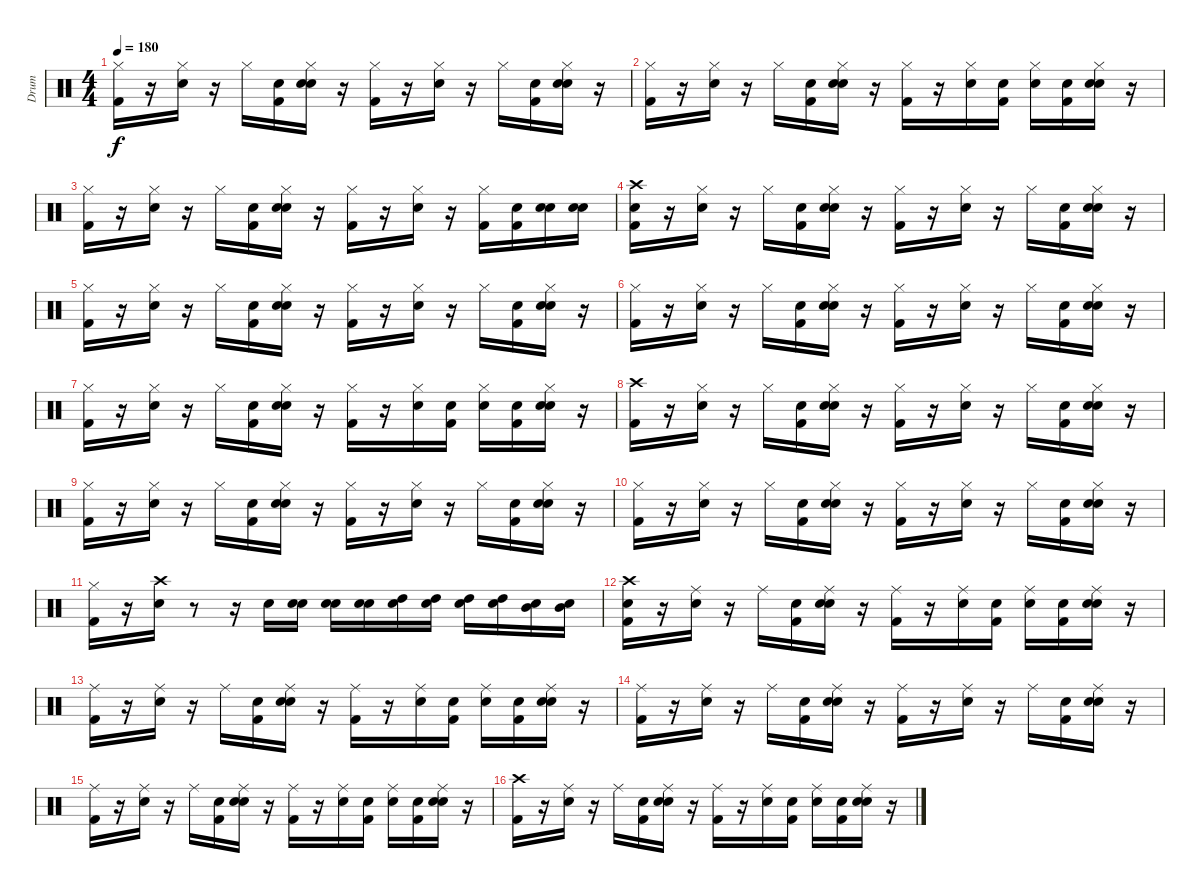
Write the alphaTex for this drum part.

\track ("Drum" "Drum") {instrument percussion}
\staff {score}
\articulation defaults
\ts (4 4)
\tempo 180
\clef neutral
\ks c
("Kick (hit) 2" "Hi-Hat (closed)").16{dy f} r.16 ("Snare (hit) 2" "Hi-Hat (closed)").16 r.16 "Hi-Hat (closed)".16 ("Snare (hit)" "Kick (hit) 2").16 ("Snare (hit)" "Snare (hit) 2" "Hi-Hat (closed)").16 r.16 ("Kick (hit) 2" "Hi-Hat (closed)").16 r.16 ("Snare (hit) 2" "Hi-Hat (closed)").16 r.16 "Hi-Hat (closed)".16 ("Snare (hit)" "Kick (hit) 2").16 ("Snare (hit)" "Snare (hit) 2" "Hi-Hat (closed)").16 r.16 |
("Kick (hit) 2" "Hi-Hat (closed)").16 r.16 ("Snare (hit) 2" "Hi-Hat (closed)").16 r.16 "Hi-Hat (closed)".16 ("Snare (hit)" "Kick (hit) 2").16 ("Snare (hit)" "Snare (hit) 2" "Hi-Hat (closed)").16 r.16 ("Hi-Hat (closed)" "Kick (hit) 2").16 r.16 ("Snare (hit) 2" "Hi-Hat (closed)").16 ("Snare (hit)" "Kick (hit) 2").16 ("Snare (hit)" "Hi-Hat (closed)").16 ("Snare (hit)" "Kick (hit) 2").16 ("Snare (hit)" "Snare (hit) 2" "Hi-Hat (closed)").16 r.16 |
("Kick (hit) 2" "Hi-Hat (closed)").16 r.16 ("Snare (hit) 2" "Hi-Hat (closed)").16 r.16 "Hi-Hat (closed)".16 ("Snare (hit)" "Kick (hit) 2").16 ("Snare (hit)" "Snare (hit) 2" "Hi-Hat (closed)").16 r.16 ("Kick (hit) 2" "Hi-Hat (closed)").16 r.16 ("Snare (hit) 2" "Hi-Hat (closed)").16 r.16 ("Kick (hit) 2" "Hi-Hat (closed)").16 ("Snare (hit)" "Kick (hit) 2").16 ("Snare (hit)" "Snare (hit) 2").16 ("Snare (hit)" "Snare (hit) 2").16 |
("Snare (hit)" "Kick (hit) 2" "Crash high (hit)").16 r.16 ("Snare (hit) 2" "Hi-Hat (closed)").16 r.16 "Hi-Hat (closed)".16 ("Snare (hit)" "Kick (hit) 2").16 ("Snare (hit)" "Snare (hit) 2" "Hi-Hat (closed)").16 r.16 ("Kick (hit) 2" "Hi-Hat (closed)").16 r.16 ("Snare (hit) 2" "Hi-Hat (closed)").16 r.16 "Hi-Hat (closed)".16 ("Snare (hit)" "Kick (hit) 2").16 ("Snare (hit)" "Snare (hit) 2" "Hi-Hat (closed)").16 r.16 |
("Kick (hit) 2" "Hi-Hat (closed)").16 r.16 ("Snare (hit) 2" "Hi-Hat (closed)").16 r.16 "Hi-Hat (closed)".16 ("Snare (hit)" "Kick (hit) 2").16 ("Snare (hit)" "Snare (hit) 2" "Hi-Hat (closed)").16 r.16 ("Kick (hit) 2" "Hi-Hat (closed)").16 r.16 ("Snare (hit) 2" "Hi-Hat (closed)").16 r.16 "Hi-Hat (closed)".16 ("Snare (hit)" "Kick (hit) 2").16 ("Snare (hit)" "Snare (hit) 2" "Hi-Hat (closed)").16 r.16 |
("Kick (hit) 2" "Hi-Hat (closed)").16 r.16 ("Snare (hit) 2" "Hi-Hat (closed)").16 r.16 "Hi-Hat (closed)".16 ("Snare (hit)" "Kick (hit) 2").16 ("Snare (hit)" "Snare (hit) 2" "Hi-Hat (closed)").16 r.16 ("Kick (hit) 2" "Hi-Hat (closed)").16 r.16 ("Snare (hit) 2" "Hi-Hat (closed)").16 r.16 "Hi-Hat (closed)".16 ("Snare (hit)" "Kick (hit) 2").16 ("Snare (hit)" "Snare (hit) 2" "Hi-Hat (closed)").16 r.16 |
("Kick (hit) 2" "Hi-Hat (closed)").16 r.16 ("Snare (hit) 2" "Hi-Hat (closed)").16 r.16 "Hi-Hat (closed)".16 ("Snare (hit)" "Kick (hit) 2").16 ("Snare (hit)" "Snare (hit) 2" "Hi-Hat (closed)").16 r.16 ("Kick (hit) 2" "Hi-Hat (closed)").16 r.16 ("Snare (hit) 2" "Hi-Hat (closed)").16 ("Snare (hit)" "Kick (hit) 2").16 ("Snare (hit)" "Hi-Hat (closed)").16 ("Snare (hit)" "Kick (hit) 2").16 ("Snare (hit)" "Snare (hit) 2" "Hi-Hat (closed)").16 r.16 |
("Kick (hit) 2" "Crash high (hit)").16 r.16 ("Snare (hit) 2" "Hi-Hat (closed)").16 r.16 "Hi-Hat (closed)".16 ("Snare (hit)" "Kick (hit) 2").16 ("Snare (hit)" "Snare (hit) 2" "Hi-Hat (closed)").16 r.16 ("Kick (hit) 2" "Hi-Hat (closed)").16 r.16 ("Snare (hit) 2" "Hi-Hat (closed)").16 r.16 "Hi-Hat (closed)".16 ("Snare (hit)" "Kick (hit) 2").16 ("Snare (hit)" "Snare (hit) 2" "Hi-Hat (closed)").16 r.16 |
("Kick (hit) 2" "Hi-Hat (closed)").16 r.16 ("Snare (hit) 2" "Hi-Hat (closed)").16 r.16 "Hi-Hat (closed)".16 ("Snare (hit)" "Kick (hit) 2").16 ("Snare (hit)" "Snare (hit) 2" "Hi-Hat (closed)").16 r.16 ("Kick (hit) 2" "Hi-Hat (closed)").16 r.16 ("Snare (hit) 2" "Hi-Hat (closed)").16 r.16 "Hi-Hat (closed)".16 ("Snare (hit)" "Kick (hit) 2").16 ("Snare (hit)" "Snare (hit) 2" "Hi-Hat (closed)").16 r.16 |
("Kick (hit) 2" "Hi-Hat (closed)").16 r.16 ("Snare (hit) 2" "Hi-Hat (closed)").16 r.16 "Hi-Hat (closed)".16 ("Snare (hit)" "Kick (hit) 2").16 ("Snare (hit)" "Snare (hit) 2" "Hi-Hat (closed)").16 r.16 ("Kick (hit) 2" "Hi-Hat (closed)").16 r.16 ("Snare (hit) 2" "Hi-Hat (closed)").16 r.16 "Hi-Hat (closed)".16 ("Snare (hit)" "Kick (hit) 2").16 ("Snare (hit)" "Snare (hit) 2" "Hi-Hat (closed)").16 r.16 |
("Kick (hit) 2" "Hi-Hat (closed)").16 r.16 ("Snare (hit) 2" "Crash high (hit)").16 r.8 r.16 "Snare (hit) 2".16 ("Snare (hit)" "Snare (hit) 2").16 ("Snare (hit)" "Snare (hit) 2").16 ("Snare (hit)" "Snare (hit) 2").16 ("Snare (hit)" "High Tom (hit)").16 ("Snare (hit)" "High Tom (hit)").16 ("Snare (hit)" "High Tom (hit)").16 ("Snare (hit)" "High Tom (hit)").16 ("Snare (hit)" "Mid Tom (hit)").16 ("Snare (hit)" "Mid Tom (hit)").16 |
("Snare (hit)" "Crash high (hit)" "Kick (hit) 2").16 r.16 ("Snare (hit) 2" "Ride (middle)").16 r.16 "Ride (middle)".16 ("Snare (hit)" "Kick (hit) 2").16 ("Snare (hit)" "Snare (hit) 2" "Ride (middle)").16 r.16 ("Kick (hit) 2" "Ride (middle)").16 r.16 ("Snare (hit) 2" "Ride (middle)").16 ("Snare (hit)" "Kick (hit) 2").16 ("Snare (hit)" "Ride (middle)").16 ("Snare (hit)" "Kick (hit) 2").16 ("Snare (hit)" "Snare (hit) 2" "Ride (middle)").16 r.16 |
("Kick (hit) 2" "Ride (middle)").16 r.16 ("Snare (hit) 2" "Ride (middle)").16 r.16 "Ride (middle)".16 ("Snare (hit)" "Kick (hit) 2").16 ("Snare (hit)" "Snare (hit) 2" "Ride (middle)").16 r.16 ("Kick (hit) 2" "Ride (middle)").16 r.16 ("Snare (hit) 2" "Ride (middle)").16 ("Snare (hit)" "Kick (hit) 2").16 ("Snare (hit)" "Ride (middle)").16 ("Snare (hit)" "Kick (hit) 2").16 ("Snare (hit)" "Snare (hit) 2" "Ride (middle)").16 r.16 |
("Kick (hit) 2" "Ride (middle)").16 r.16 ("Snare (hit) 2" "Ride (middle)").16 r.16 "Ride (middle)".16 ("Snare (hit)" "Kick (hit) 2").16 ("Snare (hit)" "Snare (hit) 2" "Ride (middle)").16 r.16 ("Kick (hit) 2" "Ride (middle)").16 r.16 ("Snare (hit) 2" "Ride (middle)").16 r.16 "Ride (middle)".16 ("Snare (hit)" "Kick (hit) 2").16 ("Snare (hit)" "Snare (hit) 2" "Ride (middle)").16 r.16 |
("Kick (hit) 2" "Ride (middle)").16 r.16 ("Snare (hit) 2" "Ride (middle)").16 r.16 "Ride (middle)".16 ("Snare (hit)" "Kick (hit) 2").16 ("Snare (hit)" "Snare (hit) 2" "Ride (middle)").16 r.16 ("Kick (hit) 2" "Ride (middle)").16 r.16 ("Snare (hit) 2" "Ride (middle)").16 ("Snare (hit)" "Kick (hit) 2").16 ("Snare (hit)" "Ride (middle)").16 ("Snare (hit)" "Kick (hit) 2").16 ("Snare (hit)" "Snare (hit) 2" "Ride (middle)").16 r.16 |
("Kick (hit) 2" "Crash high (hit)").16 r.16 ("Snare (hit) 2" "Ride (middle)").16 r.16 "Ride (middle)".16 ("Snare (hit)" "Kick (hit) 2").16 ("Snare (hit)" "Snare (hit) 2" "Ride (middle)").16 r.16 ("Kick (hit) 2" "Ride (middle)").16 r.16 ("Snare (hit) 2" "Ride (middle)").16 ("Snare (hit)" "Kick (hit) 2").16 ("Snare (hit)" "Ride (middle)").16 ("Snare (hit)" "Kick (hit) 2").16 ("Snare (hit)" "Snare (hit) 2" "Ride (middle)").16 r.16
